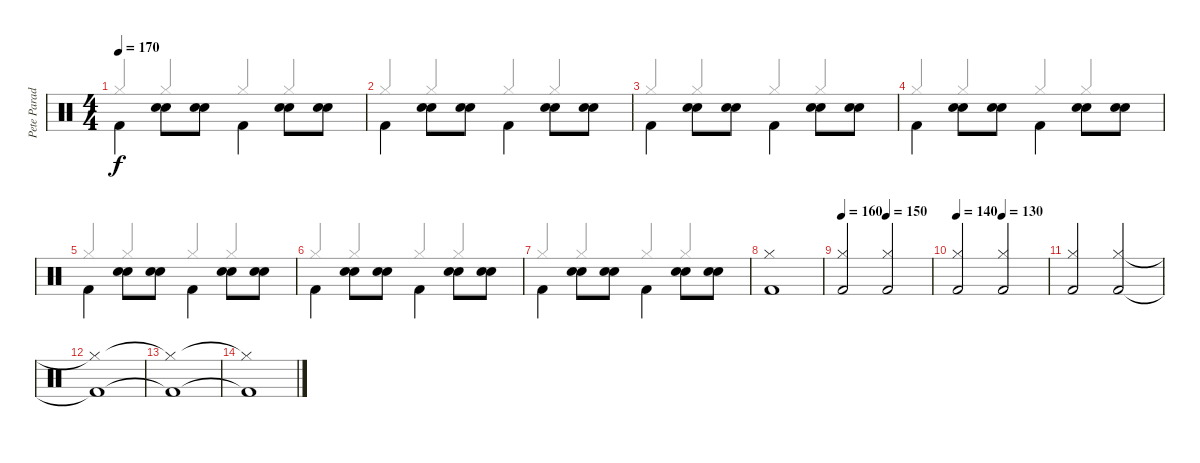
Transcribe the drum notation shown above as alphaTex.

\track ("Pete Parada" "Pete Parad") {instrument percussion}
\staff {score}
\articulation defaults
\voice
\ts (4 4)
\tempo 170
\clef neutral
\ks c "Kick (hit) 2".4{dy f beam Down}
("Electric Snare (hit)" "Electric Snare (hit)").8{beam Down} ("Electric Snare (hit)" "Electric Snare (hit)").8{beam Down} "Kick (hit) 2".4{beam Down} ("Electric Snare (hit)" "Electric Snare (hit)").8{beam Down} ("Electric Snare (hit)" "Electric Snare (hit)").8{beam Down} |
"Kick (hit) 2".4{beam Down} ("Electric Snare (hit)" "Electric Snare (hit)").8{beam Down} ("Electric Snare (hit)" "Electric Snare (hit)").8{beam Down} "Kick (hit) 2".4{beam Down} ("Electric Snare (hit)" "Electric Snare (hit)").8{beam Down} ("Electric Snare (hit)" "Electric Snare (hit)").8{beam Down} |
"Kick (hit) 2".4{beam Down} ("Electric Snare (hit)" "Electric Snare (hit)").8{beam Down} ("Electric Snare (hit)" "Electric Snare (hit)").8{beam Down} "Kick (hit) 2".4{beam Down} ("Electric Snare (hit)" "Electric Snare (hit)").8{beam Down} ("Electric Snare (hit)" "Electric Snare (hit)").8{beam Down} |
"Kick (hit) 2".4{beam Down} ("Electric Snare (hit)" "Electric Snare (hit)").8{beam Down} ("Electric Snare (hit)" "Electric Snare (hit)").8{beam Down} "Kick (hit) 2".4{beam Down} ("Electric Snare (hit)" "Electric Snare (hit)").8{beam Down} ("Electric Snare (hit)" "Electric Snare (hit)").8{beam Down} |
"Kick (hit) 2".4{beam Down} ("Electric Snare (hit)" "Electric Snare (hit)").8{beam Down} ("Electric Snare (hit)" "Electric Snare (hit)").8{beam Down} "Kick (hit) 2".4{beam Down} ("Electric Snare (hit)" "Electric Snare (hit)").8{beam Down} ("Electric Snare (hit)" "Electric Snare (hit)").8{beam Down} |
"Kick (hit) 2".4{beam Down} ("Electric Snare (hit)" "Electric Snare (hit)").8{beam Down} ("Electric Snare (hit)" "Electric Snare (hit)").8{beam Down} "Kick (hit) 2".4{beam Down} ("Electric Snare (hit)" "Electric Snare (hit)").8{beam Down} ("Electric Snare (hit)" "Electric Snare (hit)").8{beam Down} |
"Kick (hit) 2".4{beam Down} ("Electric Snare (hit)" "Electric Snare (hit)").8{beam Down} ("Electric Snare (hit)" "Electric Snare (hit)").8{beam Down} "Kick (hit) 2".4{beam Down} ("Electric Snare (hit)" "Electric Snare (hit)").8{beam Down} ("Electric Snare (hit)" "Electric Snare (hit)").8{beam Down} |
("Hi-Hat (closed)" "Kick (hit) 2").1 |
\tempo 160
\tempo (150 0.5)
("Hi-Hat (closed)" "Kick (hit) 2").2{beam Up} ("Hi-Hat (closed)" "Kick (hit) 2").2{beam Up} |
\tempo 140
\tempo (130 0.5)
("Hi-Hat (closed)" "Kick (hit) 2").2{beam Up} ("Hi-Hat (closed)" "Kick (hit) 2").2{beam Up} |
("Hi-Hat (closed)" "Kick (hit) 2").2{beam Up} ("Hi-Hat (closed)" "Kick (hit) 2").2{beam Up} |
("Hi-Hat (closed)"{t} "Kick (hit) 2"{t}).1 |
("Hi-Hat (closed)"{t} "Kick (hit) 2"{t}).1 |
("Hi-Hat (closed)"{t} "Kick (hit) 2"{t}).1
\voice
\clef neutral
\ottava regular
\simile none
\ks c "Hi-Hat (closed)".4{dy f beam Up} "Hi-Hat (closed)".4{beam Up} "Hi-Hat (closed)".4{beam Up} "Hi-Hat (closed)".4{beam Up}
|
"Hi-Hat (closed)".4{beam Up} "Hi-Hat (closed)".4{beam Up} "Hi-Hat (closed)".4{beam Up} "Hi-Hat (closed)".4{beam Up} |
"Hi-Hat (closed)".4{beam Up} "Hi-Hat (closed)".4{beam Up} "Hi-Hat (closed)".4{beam Up} "Hi-Hat (closed)".4{beam Up} |
"Hi-Hat (closed)".4{beam Up} "Hi-Hat (closed)".4{beam Up} "Hi-Hat (closed)".4{beam Up} "Hi-Hat (closed)".4{beam Up} |
"Hi-Hat (closed)".4{beam Up} "Hi-Hat (closed)".4{beam Up} "Hi-Hat (closed)".4{beam Up} "Hi-Hat (closed)".4{beam Up} |
"Hi-Hat (closed)".4{beam Up} "Hi-Hat (closed)".4{beam Up} "Hi-Hat (closed)".4{beam Up} "Hi-Hat (closed)".4{beam Up} |
"Hi-Hat (closed)".4{beam Up} "Hi-Hat (closed)".4{beam Up} "Hi-Hat (closed)".4{beam Up} "Hi-Hat (closed)".4{beam Up} |
|
|
|
|
|
|
